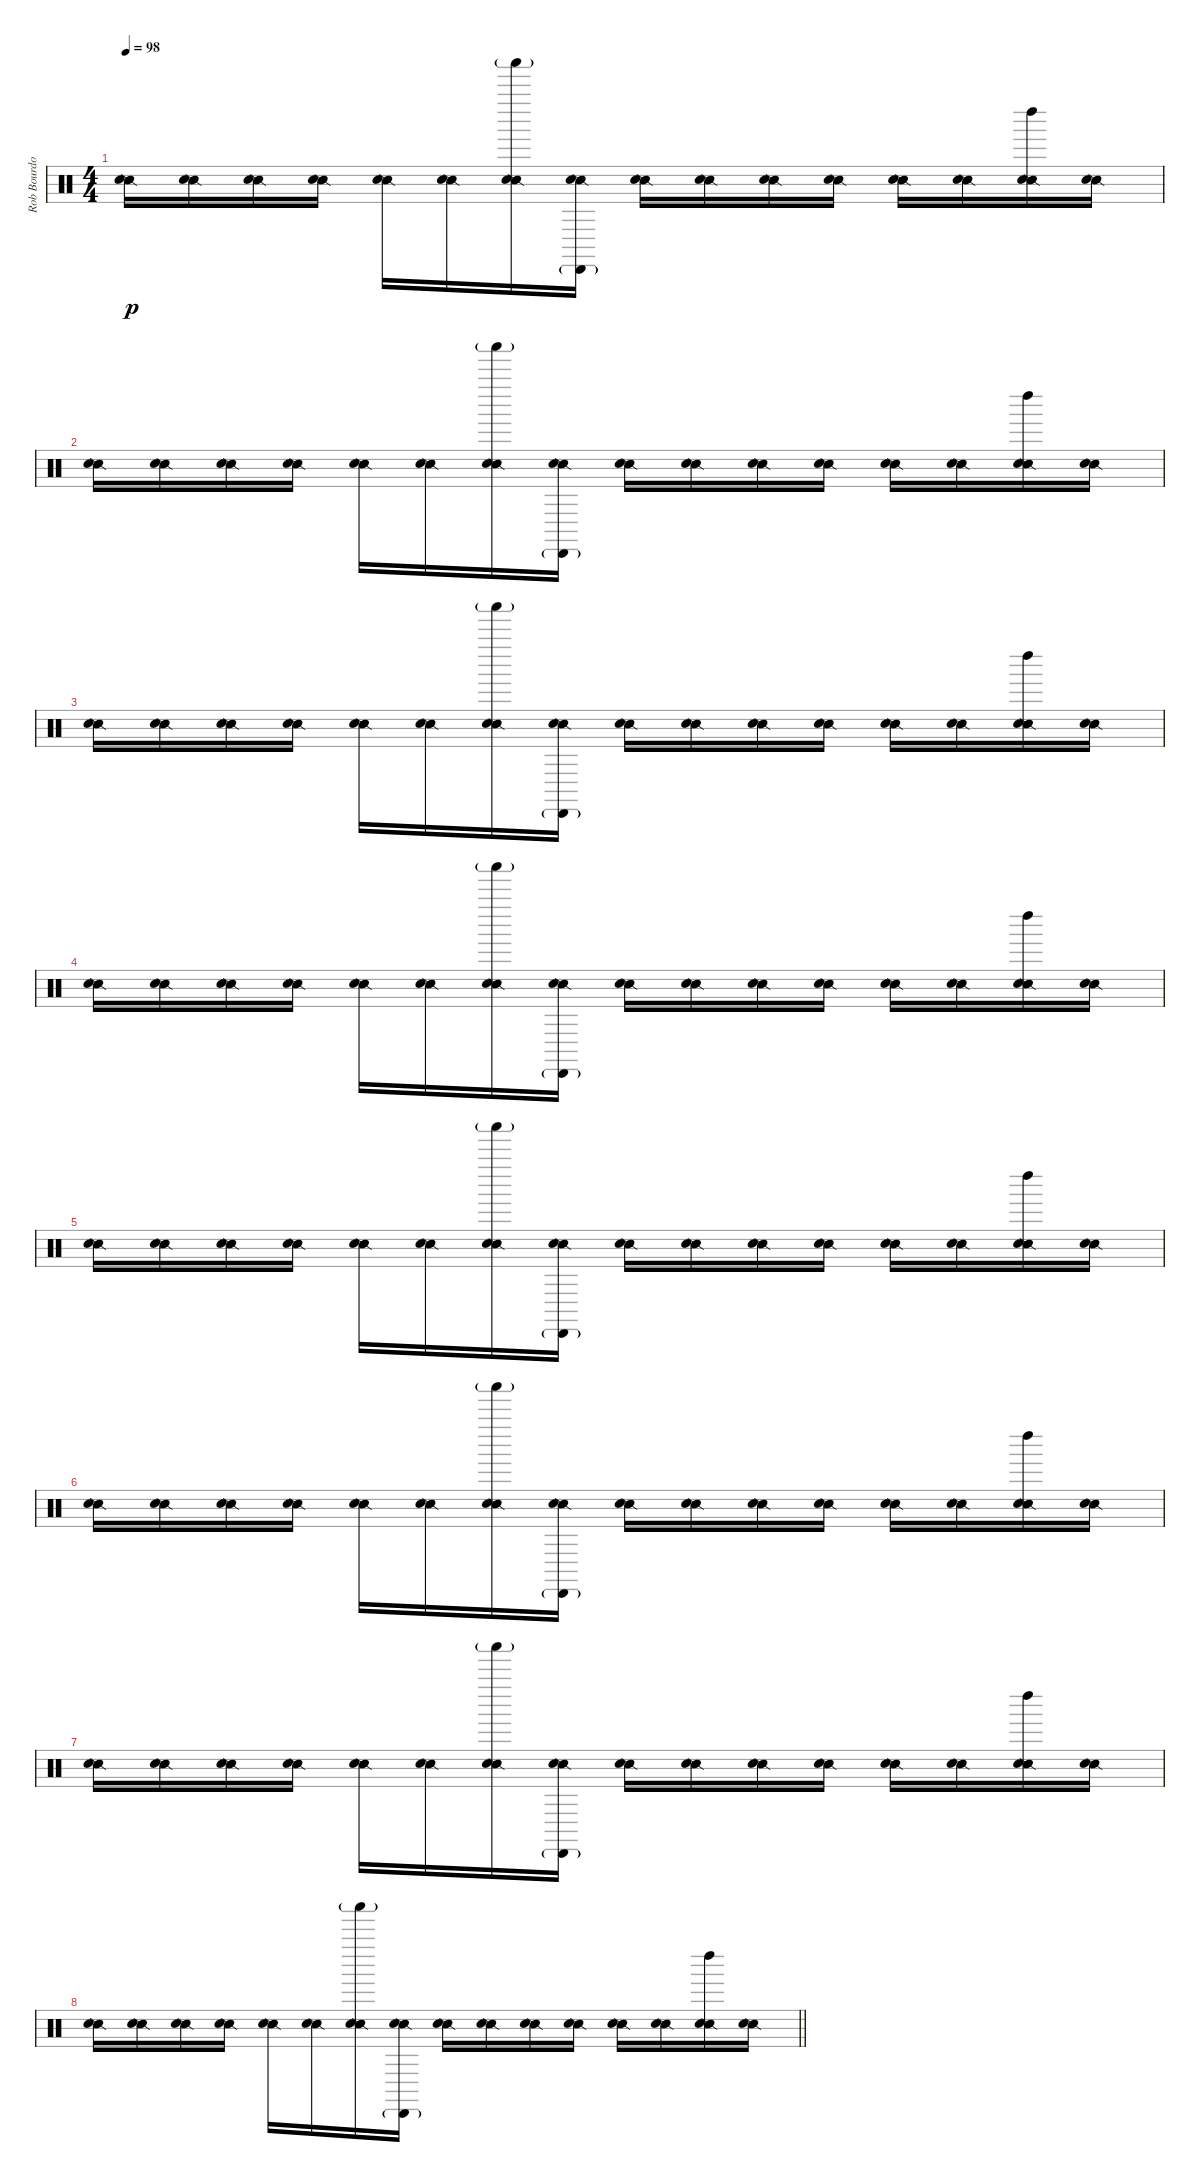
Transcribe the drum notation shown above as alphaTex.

\track ("Rob Bourdon (Drums)" "Rob Bourdo") {instrument percussion}
\staff {score}
\articulation defaults
\ts (4 4)
\tempo 98
\clef neutral
\ks c
("Snare (side stick) 2" "Hand Clap (hit)").16{dy p} ("Snare (side stick) 2" "Hand Clap (hit)").16 ("Snare (side stick) 2" "Hand Clap (hit)").16 ("Snare (side stick) 2" "Hand Clap (hit)").16 ("Snare (side stick) 2" "Hand Clap (hit)").16 ("Snare (side stick) 2" "Hand Clap (hit)").16 ("Shaker (hit)"{g} "Snare (side stick) 2" "Hand Clap (hit)").16 ("Cabasa (hit)"{g} "Snare (side stick) 2" "Hand Clap (hit)").16 ("Snare (side stick) 2" "Hand Clap (hit)").16 ("Snare (side stick) 2" "Hand Clap (hit)").16 ("Snare (side stick) 2" "Hand Clap (hit)").16 ("Snare (side stick) 2" "Hand Clap (hit)").16 ("Snare (side stick) 2" "Hand Clap (hit)").16 ("Snare (side stick) 2" "Hand Clap (hit)").16 ("Left Maraca (hit)" "Snare (side stick) 2" "Hand Clap (hit)").16 ("Snare (side stick) 2" "Hand Clap (hit)").16 |
("Snare (side stick) 2" "Hand Clap (hit)").16 ("Snare (side stick) 2" "Hand Clap (hit)").16 ("Snare (side stick) 2" "Hand Clap (hit)").16 ("Snare (side stick) 2" "Hand Clap (hit)").16 ("Snare (side stick) 2" "Hand Clap (hit)").16 ("Snare (side stick) 2" "Hand Clap (hit)").16 ("Shaker (hit)"{g} "Snare (side stick) 2" "Hand Clap (hit)").16 ("Cabasa (hit)"{g} "Snare (side stick) 2" "Hand Clap (hit)").16 ("Snare (side stick) 2" "Hand Clap (hit)").16 ("Snare (side stick) 2" "Hand Clap (hit)").16 ("Snare (side stick) 2" "Hand Clap (hit)").16 ("Snare (side stick) 2" "Hand Clap (hit)").16 ("Snare (side stick) 2" "Hand Clap (hit)").16 ("Snare (side stick) 2" "Hand Clap (hit)").16 ("Left Maraca (hit)" "Snare (side stick) 2" "Hand Clap (hit)").16 ("Snare (side stick) 2" "Hand Clap (hit)").16 |
("Snare (side stick) 2" "Hand Clap (hit)").16 ("Snare (side stick) 2" "Hand Clap (hit)").16 ("Snare (side stick) 2" "Hand Clap (hit)").16 ("Snare (side stick) 2" "Hand Clap (hit)").16 ("Snare (side stick) 2" "Hand Clap (hit)").16 ("Snare (side stick) 2" "Hand Clap (hit)").16 ("Shaker (hit)"{g} "Snare (side stick) 2" "Hand Clap (hit)").16 ("Cabasa (hit)"{g} "Snare (side stick) 2" "Hand Clap (hit)").16 ("Snare (side stick) 2" "Hand Clap (hit)").16 ("Snare (side stick) 2" "Hand Clap (hit)").16 ("Snare (side stick) 2" "Hand Clap (hit)").16 ("Snare (side stick) 2" "Hand Clap (hit)").16 ("Snare (side stick) 2" "Hand Clap (hit)").16 ("Snare (side stick) 2" "Hand Clap (hit)").16 ("Left Maraca (hit)" "Snare (side stick) 2" "Hand Clap (hit)").16 ("Snare (side stick) 2" "Hand Clap (hit)").16 |
("Snare (side stick) 2" "Hand Clap (hit)").16 ("Snare (side stick) 2" "Hand Clap (hit)").16 ("Snare (side stick) 2" "Hand Clap (hit)").16 ("Snare (side stick) 2" "Hand Clap (hit)").16 ("Snare (side stick) 2" "Hand Clap (hit)").16 ("Snare (side stick) 2" "Hand Clap (hit)").16 ("Shaker (hit)"{g} "Snare (side stick) 2" "Hand Clap (hit)").16 ("Cabasa (hit)"{g} "Snare (side stick) 2" "Hand Clap (hit)").16 ("Snare (side stick) 2" "Hand Clap (hit)").16 ("Snare (side stick) 2" "Hand Clap (hit)").16 ("Snare (side stick) 2" "Hand Clap (hit)").16 ("Snare (side stick) 2" "Hand Clap (hit)").16 ("Snare (side stick) 2" "Hand Clap (hit)").16 ("Snare (side stick) 2" "Hand Clap (hit)").16 ("Left Maraca (hit)" "Snare (side stick) 2" "Hand Clap (hit)").16 ("Snare (side stick) 2" "Hand Clap (hit)").16 |
("Snare (side stick) 2" "Hand Clap (hit)").16 ("Snare (side stick) 2" "Hand Clap (hit)").16 ("Snare (side stick) 2" "Hand Clap (hit)").16 ("Snare (side stick) 2" "Hand Clap (hit)").16 ("Snare (side stick) 2" "Hand Clap (hit)").16 ("Snare (side stick) 2" "Hand Clap (hit)").16 ("Shaker (hit)"{g} "Snare (side stick) 2" "Hand Clap (hit)").16 ("Cabasa (hit)"{g} "Snare (side stick) 2" "Hand Clap (hit)").16 ("Snare (side stick) 2" "Hand Clap (hit)").16 ("Snare (side stick) 2" "Hand Clap (hit)").16 ("Snare (side stick) 2" "Hand Clap (hit)").16 ("Snare (side stick) 2" "Hand Clap (hit)").16 ("Snare (side stick) 2" "Hand Clap (hit)").16 ("Snare (side stick) 2" "Hand Clap (hit)").16 ("Left Maraca (hit)" "Snare (side stick) 2" "Hand Clap (hit)").16 ("Snare (side stick) 2" "Hand Clap (hit)").16 |
("Snare (side stick) 2" "Hand Clap (hit)").16 ("Snare (side stick) 2" "Hand Clap (hit)").16 ("Snare (side stick) 2" "Hand Clap (hit)").16 ("Snare (side stick) 2" "Hand Clap (hit)").16 ("Snare (side stick) 2" "Hand Clap (hit)").16 ("Snare (side stick) 2" "Hand Clap (hit)").16 ("Shaker (hit)"{g} "Snare (side stick) 2" "Hand Clap (hit)").16 ("Cabasa (hit)"{g} "Snare (side stick) 2" "Hand Clap (hit)").16 ("Snare (side stick) 2" "Hand Clap (hit)").16 ("Snare (side stick) 2" "Hand Clap (hit)").16 ("Snare (side stick) 2" "Hand Clap (hit)").16 ("Snare (side stick) 2" "Hand Clap (hit)").16 ("Snare (side stick) 2" "Hand Clap (hit)").16 ("Snare (side stick) 2" "Hand Clap (hit)").16 ("Left Maraca (hit)" "Snare (side stick) 2" "Hand Clap (hit)").16 ("Snare (side stick) 2" "Hand Clap (hit)").16 |
("Snare (side stick) 2" "Hand Clap (hit)").16 ("Snare (side stick) 2" "Hand Clap (hit)").16 ("Snare (side stick) 2" "Hand Clap (hit)").16 ("Snare (side stick) 2" "Hand Clap (hit)").16 ("Snare (side stick) 2" "Hand Clap (hit)").16 ("Snare (side stick) 2" "Hand Clap (hit)").16 ("Shaker (hit)"{g} "Snare (side stick) 2" "Hand Clap (hit)").16 ("Cabasa (hit)"{g} "Snare (side stick) 2" "Hand Clap (hit)").16 ("Snare (side stick) 2" "Hand Clap (hit)").16 ("Snare (side stick) 2" "Hand Clap (hit)").16 ("Snare (side stick) 2" "Hand Clap (hit)").16 ("Snare (side stick) 2" "Hand Clap (hit)").16 ("Snare (side stick) 2" "Hand Clap (hit)").16 ("Snare (side stick) 2" "Hand Clap (hit)").16 ("Left Maraca (hit)" "Snare (side stick) 2" "Hand Clap (hit)").16 ("Snare (side stick) 2" "Hand Clap (hit)").16 |
\barLineRight lightlight
("Snare (side stick) 2" "Hand Clap (hit)").16 ("Snare (side stick) 2" "Hand Clap (hit)").16 ("Snare (side stick) 2" "Hand Clap (hit)").16 ("Snare (side stick) 2" "Hand Clap (hit)").16 ("Snare (side stick) 2" "Hand Clap (hit)").16 ("Snare (side stick) 2" "Hand Clap (hit)").16 ("Shaker (hit)"{g} "Snare (side stick) 2" "Hand Clap (hit)").16 ("Cabasa (hit)"{g} "Snare (side stick) 2" "Hand Clap (hit)").16 ("Snare (side stick) 2" "Hand Clap (hit)").16 ("Snare (side stick) 2" "Hand Clap (hit)").16 ("Snare (side stick) 2" "Hand Clap (hit)").16 ("Snare (side stick) 2" "Hand Clap (hit)").16 ("Snare (side stick) 2" "Hand Clap (hit)").16 ("Snare (side stick) 2" "Hand Clap (hit)").16 ("Left Maraca (hit)" "Snare (side stick) 2" "Hand Clap (hit)").16 ("Snare (side stick) 2" "Hand Clap (hit)").16
